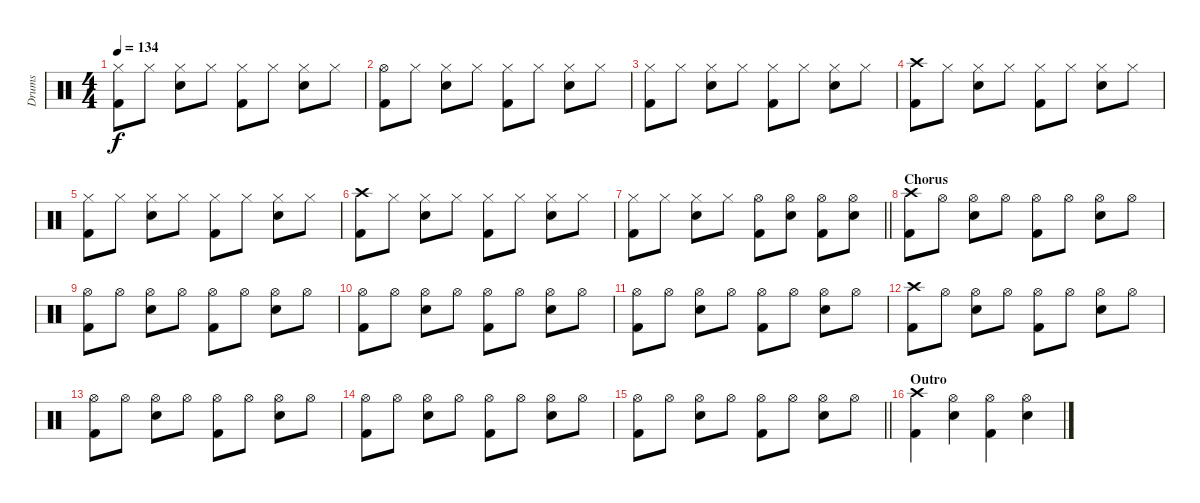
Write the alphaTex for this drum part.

\track ("Drums" "Drums") {instrument percussion}
\staff {score}
\articulation defaults
\ts (4 4)
\tempo 134
\clef neutral
\ks c
("Hi-Hat (closed)" "Kick (hit) 2").8{dy f} "Hi-Hat (closed)".8 ("Hi-Hat (closed)" "Snare (hit) 2").8 "Hi-Hat (closed)".8 ("Hi-Hat (closed)" "Kick (hit) 2").8 "Hi-Hat (closed)".8 ("Hi-Hat (closed)" "Snare (hit) 2").8 "Hi-Hat (closed)".8 |
("Hi-Hat (open)" "Kick (hit) 2").8 "Hi-Hat (closed)".8 ("Hi-Hat (closed)" "Snare (hit) 2").8 "Hi-Hat (closed)".8 ("Hi-Hat (closed)" "Kick (hit) 2").8 "Hi-Hat (closed)".8 ("Hi-Hat (closed)" "Snare (hit) 2").8 "Hi-Hat (closed)".8 |
("Hi-Hat (closed)" "Kick (hit) 2").8 "Hi-Hat (closed)".8 ("Hi-Hat (closed)" "Snare (hit) 2").8 "Hi-Hat (closed)".8 ("Hi-Hat (closed)" "Kick (hit) 2").8 "Hi-Hat (closed)".8 ("Hi-Hat (closed)" "Snare (hit) 2").8 "Hi-Hat (closed)".8 |
("Crash high (hit)" "Kick (hit) 2").8 "Hi-Hat (closed)".8 ("Hi-Hat (closed)" "Snare (hit) 2").8 "Hi-Hat (closed)".8 ("Hi-Hat (closed)" "Kick (hit) 2").8 "Hi-Hat (closed)".8 ("Hi-Hat (closed)" "Snare (hit) 2").8 "Hi-Hat (closed)".8 |
("Hi-Hat (closed)" "Kick (hit) 2").8 "Hi-Hat (closed)".8 ("Hi-Hat (closed)" "Snare (hit) 2").8 "Hi-Hat (closed)".8 ("Hi-Hat (closed)" "Kick (hit) 2").8 "Hi-Hat (closed)".8 ("Hi-Hat (closed)" "Snare (hit) 2").8 "Hi-Hat (closed)".8 |
("Crash high (hit)" "Kick (hit) 2").8 "Hi-Hat (closed)".8 ("Hi-Hat (closed)" "Snare (hit) 2").8 "Hi-Hat (closed)".8 ("Hi-Hat (closed)" "Kick (hit) 2").8 "Hi-Hat (closed)".8 ("Hi-Hat (closed)" "Snare (hit) 2").8 "Hi-Hat (closed)".8 |
\barLineRight lightlight
("Hi-Hat (closed)" "Kick (hit) 2").8 "Hi-Hat (closed)".8 ("Hi-Hat (closed)" "Snare (hit) 2").8 "Hi-Hat (closed)".8 ("Hi-Hat (open)" "Kick (hit) 2").8 ("Hi-Hat (open)" "Snare (hit) 2").8 ("Hi-Hat (open)" "Kick (hit) 2").8 ("Hi-Hat (open)" "Snare (hit) 2").8 |
\section ("" "Chorus")
("Crash high (hit)" "Kick (hit) 2").8 "Hi-Hat (open)".8 ("Hi-Hat (open)" "Snare (hit) 2").8 "Hi-Hat (open)".8 ("Hi-Hat (open)" "Kick (hit) 2").8 "Hi-Hat (open)".8 ("Hi-Hat (open)" "Snare (hit) 2").8 "Hi-Hat (open)".8 |
("Hi-Hat (open)" "Kick (hit) 2").8 "Hi-Hat (open)".8 ("Hi-Hat (open)" "Snare (hit) 2").8 "Hi-Hat (open)".8 ("Hi-Hat (open)" "Kick (hit) 2").8 "Hi-Hat (open)".8 ("Hi-Hat (open)" "Snare (hit) 2").8 "Hi-Hat (open)".8 |
("Hi-Hat (open)" "Kick (hit) 2").8 "Hi-Hat (open)".8 ("Hi-Hat (open)" "Snare (hit) 2").8 "Hi-Hat (open)".8 ("Hi-Hat (open)" "Kick (hit) 2").8 "Hi-Hat (open)".8 ("Hi-Hat (open)" "Snare (hit) 2").8 "Hi-Hat (open)".8 |
("Hi-Hat (open)" "Kick (hit) 2").8 "Hi-Hat (open)".8 ("Hi-Hat (open)" "Snare (hit) 2").8 "Hi-Hat (open)".8 ("Hi-Hat (open)" "Kick (hit) 2").8 "Hi-Hat (open)".8 ("Hi-Hat (open)" "Snare (hit) 2").8 "Hi-Hat (open)".8 |
("Crash high (hit)" "Kick (hit) 2").8 "Hi-Hat (open)".8 ("Hi-Hat (open)" "Snare (hit) 2").8 "Hi-Hat (open)".8 ("Hi-Hat (open)" "Kick (hit) 2").8 "Hi-Hat (open)".8 ("Hi-Hat (open)" "Snare (hit) 2").8 "Hi-Hat (open)".8 |
("Hi-Hat (open)" "Kick (hit) 2").8 "Hi-Hat (open)".8 ("Hi-Hat (open)" "Snare (hit) 2").8 "Hi-Hat (open)".8 ("Hi-Hat (open)" "Kick (hit) 2").8 "Hi-Hat (open)".8 ("Hi-Hat (open)" "Snare (hit) 2").8 "Hi-Hat (open)".8 |
("Hi-Hat (open)" "Kick (hit) 2").8 "Hi-Hat (open)".8 ("Hi-Hat (open)" "Snare (hit) 2").8 "Hi-Hat (open)".8 ("Hi-Hat (open)" "Kick (hit) 2").8 "Hi-Hat (open)".8 ("Hi-Hat (open)" "Snare (hit) 2").8 "Hi-Hat (open)".8 |
\barLineRight lightlight
("Hi-Hat (open)" "Kick (hit) 2").8 "Hi-Hat (open)".8 ("Hi-Hat (open)" "Snare (hit) 2").8 "Hi-Hat (open)".8 ("Hi-Hat (open)" "Kick (hit) 2").8 "Hi-Hat (open)".8 ("Hi-Hat (open)" "Snare (hit) 2").8 "Hi-Hat (open)".8 |
\section ("" "Outro")
("Crash high (hit)" "Kick (hit) 2").4 ("Hi-Hat (open)" "Snare (hit) 2").4 ("Hi-Hat (open)" "Kick (hit) 2").4 ("Hi-Hat (open)" "Snare (hit) 2").4
